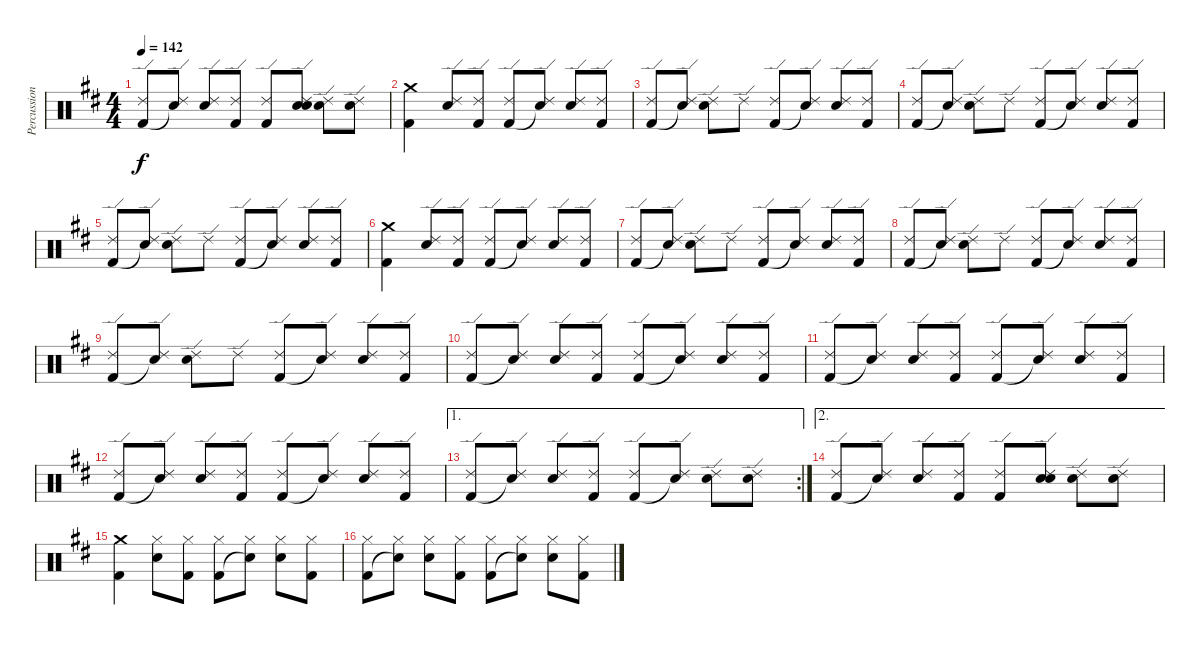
\track ("Percussion" "Percussion") {instrument percussion}
\staff {score}
\articulation defaults
\ts (4 4)
\tempo 142
\clef neutral
\ks d
("Ride (edge) 2" "Kick (hit) 2").8{dy f} ("Ride (edge) 2" "Snare (hit)"{t}).8 ("Ride (edge) 2" "Snare (hit) 2").8 ("Ride (edge) 2" "Kick (hit) 2").8 ("Ride (edge) 2" "Kick (hit) 2").8 ("Ride (edge) 2" "Snare (hit) 2" "Snare (hit)").8 ("Ride (edge) 2" "Snare (hit) 2").8 ("Ride (edge) 2" "Snare (hit) 2").8 |
("Crash medium (hit)" "Kick (hit) 2").4 ("Ride (edge) 2" "Snare (hit) 2").8 ("Ride (edge) 2" "Kick (hit) 2").8 ("Ride (edge) 2" "Kick (hit) 2").8 ("Ride (edge) 2" "Snare (hit)"{t}).8 ("Ride (edge) 2" "Snare (hit) 2").8 ("Ride (edge) 2" "Kick (hit) 2").8 |
("Ride (edge) 2" "Kick (hit) 2").8 ("Ride (edge) 2" "Snare (hit)"{t}).8 ("Ride (edge) 2" "Snare (hit) 2").8 "Ride (edge) 2".8 ("Ride (edge) 2" "Kick (hit) 2").8 ("Ride (edge) 2" "Snare (hit)"{t}).8 ("Ride (edge) 2" "Snare (hit) 2").8 ("Ride (edge) 2" "Kick (hit) 2").8 |
("Ride (edge) 2" "Kick (hit) 2").8 ("Ride (edge) 2" "Snare (hit)"{t}).8 ("Ride (edge) 2" "Snare (hit) 2").8 "Ride (edge) 2".8 ("Ride (edge) 2" "Kick (hit) 2").8 ("Ride (edge) 2" "Snare (hit)"{t}).8 ("Ride (edge) 2" "Snare (hit) 2").8 ("Ride (edge) 2" "Kick (hit) 2").8 |
("Ride (edge) 2" "Kick (hit) 2").8 ("Ride (edge) 2" "Snare (hit)"{t}).8 ("Ride (edge) 2" "Snare (hit) 2").8 "Ride (edge) 2".8 ("Ride (edge) 2" "Kick (hit) 2").8 ("Ride (edge) 2" "Snare (hit)"{t}).8 ("Ride (edge) 2" "Snare (hit) 2").8 ("Ride (edge) 2" "Kick (hit) 2").8 |
("Crash medium (hit)" "Kick (hit) 2").4 ("Ride (edge) 2" "Snare (hit) 2").8 ("Ride (edge) 2" "Kick (hit) 2").8 ("Ride (edge) 2" "Kick (hit) 2").8 ("Ride (edge) 2" "Snare (hit)"{t}).8 ("Ride (edge) 2" "Snare (hit) 2").8 ("Ride (edge) 2" "Kick (hit) 2").8 |
("Ride (edge) 2" "Kick (hit) 2").8 ("Ride (edge) 2" "Snare (hit)"{t}).8 ("Ride (edge) 2" "Snare (hit) 2").8 "Ride (edge) 2".8 ("Ride (edge) 2" "Kick (hit) 2").8 ("Ride (edge) 2" "Snare (hit)"{t}).8 ("Ride (edge) 2" "Snare (hit) 2").8 ("Ride (edge) 2" "Kick (hit) 2").8 |
("Ride (edge) 2" "Kick (hit) 2").8 ("Ride (edge) 2" "Snare (hit)"{t}).8 ("Ride (edge) 2" "Snare (hit) 2").8 "Ride (edge) 2".8 ("Ride (edge) 2" "Kick (hit) 2").8 ("Ride (edge) 2" "Snare (hit)"{t}).8 ("Ride (edge) 2" "Snare (hit) 2").8 ("Ride (edge) 2" "Kick (hit) 2").8 |
("Ride (edge) 2" "Kick (hit) 2").8 ("Ride (edge) 2" "Snare (hit)"{t}).8 ("Ride (edge) 2" "Snare (hit) 2").8 "Ride (edge) 2".8 ("Ride (edge) 2" "Kick (hit) 2").8 ("Ride (edge) 2" "Snare (hit)"{t}).8 ("Ride (edge) 2" "Snare (hit) 2").8 ("Ride (edge) 2" "Kick (hit) 2").8 |
("Ride (edge) 2" "Kick (hit) 2").8 ("Ride (edge) 2" "Snare (hit)"{t}).8 ("Ride (edge) 2" "Snare (hit) 2").8 ("Ride (edge) 2" "Kick (hit) 2").8 ("Ride (edge) 2" "Kick (hit) 2").8 ("Ride (edge) 2" "Snare (hit)"{t}).8 ("Ride (edge) 2" "Snare (hit) 2").8 ("Ride (edge) 2" "Kick (hit) 2").8 |
("Ride (edge) 2" "Kick (hit) 2").8 ("Ride (edge) 2" "Snare (hit)"{t}).8 ("Ride (edge) 2" "Snare (hit) 2").8 ("Ride (edge) 2" "Kick (hit) 2").8 ("Ride (edge) 2" "Kick (hit) 2").8 ("Ride (edge) 2" "Snare (hit)"{t}).8 ("Ride (edge) 2" "Snare (hit) 2").8 ("Ride (edge) 2" "Kick (hit) 2").8 |
("Ride (edge) 2" "Kick (hit) 2").8 ("Ride (edge) 2" "Snare (hit)"{t}).8 ("Ride (edge) 2" "Snare (hit) 2").8 ("Ride (edge) 2" "Kick (hit) 2").8 ("Ride (edge) 2" "Kick (hit) 2").8 ("Ride (edge) 2" "Snare (hit)"{t}).8 ("Ride (edge) 2" "Snare (hit) 2").8 ("Ride (edge) 2" "Kick (hit) 2").8 |
\ae 1
\rc 2
("Ride (edge) 2" "Kick (hit) 2").8 ("Ride (edge) 2" "Snare (hit)"{t}).8 ("Ride (edge) 2" "Snare (hit) 2").8 ("Ride (edge) 2" "Kick (hit) 2").8 ("Ride (edge) 2" "Kick (hit) 2").8 ("Ride (edge) 2" "Snare (hit)"{t}).8 ("Ride (edge) 2" "Snare (hit) 2").8 ("Ride (edge) 2" "Snare (hit) 2").8 |
\ae 2
("Ride (edge) 2" "Kick (hit) 2").8 ("Ride (edge) 2" "Snare (hit)"{t}).8 ("Ride (edge) 2" "Snare (hit) 2").8 ("Ride (edge) 2" "Kick (hit) 2").8 ("Ride (edge) 2" "Kick (hit) 2").8 ("Ride (edge) 2" "Snare (hit) 2" "Snare (hit)").8 ("Ride (edge) 2" "Snare (hit) 2").8 ("Ride (edge) 2" "Snare (hit) 2").8 |
("Crash medium (hit)" "Kick (hit) 2").4 ("Hi-Hat (closed)" "Snare (hit) 2").8 ("Hi-Hat (closed)" "Kick (hit) 2").8 ("Hi-Hat (closed)" "Kick (hit) 2").8 ("Hi-Hat (closed)" "Snare (hit)"{t}).8 ("Hi-Hat (closed)" "Snare (hit) 2").8 ("Hi-Hat (closed)" "Kick (hit) 2").8 |
("Hi-Hat (closed)" "Kick (hit) 2").8 ("Hi-Hat (closed)" "Snare (hit)"{t}).8 ("Hi-Hat (closed)" "Snare (hit) 2").8 ("Hi-Hat (closed)" "Kick (hit) 2").8 ("Hi-Hat (closed)" "Kick (hit) 2").8 ("Hi-Hat (closed)" "Snare (hit)"{t}).8 ("Hi-Hat (closed)" "Snare (hit) 2").8 ("Hi-Hat (closed)" "Kick (hit) 2").8
